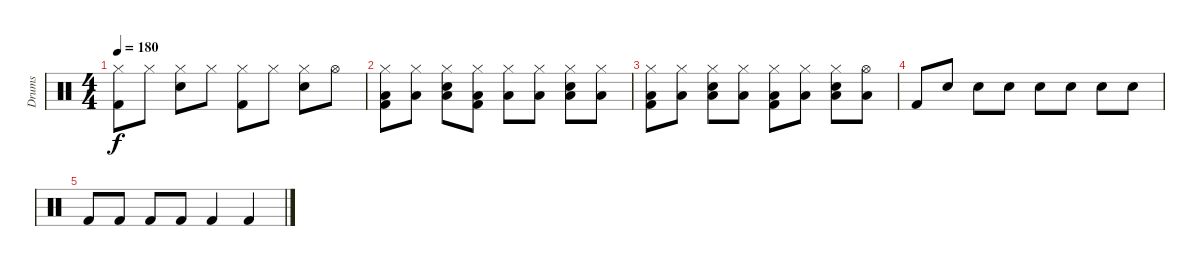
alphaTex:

\track ("Drums" "Drums") {instrument percussion}
\staff {score}
\articulation defaults
\ts (4 4)
\tempo 180
\clef neutral
\ks c
("Hi-Hat (closed)" "Kick (hit) 2").8{dy f} "Hi-Hat (closed)".8 ("Hi-Hat (closed)" "Snare (hit) 2").8 "Hi-Hat (closed)".8 ("Hi-Hat (closed)" "Kick (hit) 2").8 "Hi-Hat (closed)".8 ("Hi-Hat (closed)" "Snare (hit) 2").8 "Hi-Hat (open)".8 |
("Hi-Hat (closed)" "Low Tom (hit)" "Kick (hit) 2").8 ("Hi-Hat (closed)" "Low Tom (hit)").8 ("Hi-Hat (closed)" "Low Tom (hit)" "Snare (hit) 2").8 ("Hi-Hat (closed)" "Low Tom (hit)" "Kick (hit) 2").8 ("Hi-Hat (closed)" "Low Tom (hit)").8 ("Hi-Hat (closed)" "Low Tom (hit)").8 ("Hi-Hat (closed)" "Low Tom (hit)" "Snare (hit) 2").8 ("Hi-Hat (closed)" "Low Tom (hit)").8 |
("Hi-Hat (closed)" "Low Tom (hit)" "Kick (hit) 2").8 ("Hi-Hat (closed)" "Low Tom (hit)").8 ("Hi-Hat (closed)" "Low Tom (hit)" "Snare (hit) 2").8 ("Hi-Hat (closed)" "Low Tom (hit)").8 ("Hi-Hat (closed)" "Low Tom (hit)" "Kick (hit) 2").8 ("Hi-Hat (closed)" "Low Tom (hit)").8 ("Hi-Hat (closed)" "Low Tom (hit)" "Snare (hit) 2").8 ("Hi-Hat (open)" "Low Tom (hit)").8 |
"Kick (hit) 2".8 "Snare (hit) 2".8 "Snare (hit) 2".8 "Snare (hit) 2".8 "Snare (hit) 2".8 "Snare (hit) 2".8 "Snare (hit) 2".8 "Snare (hit) 2".8 |
"Kick (hit) 2".8 "Kick (hit) 2".8 "Kick (hit) 2".8 "Kick (hit) 2".8 "Kick (hit) 2".4 "Kick (hit) 2".4
